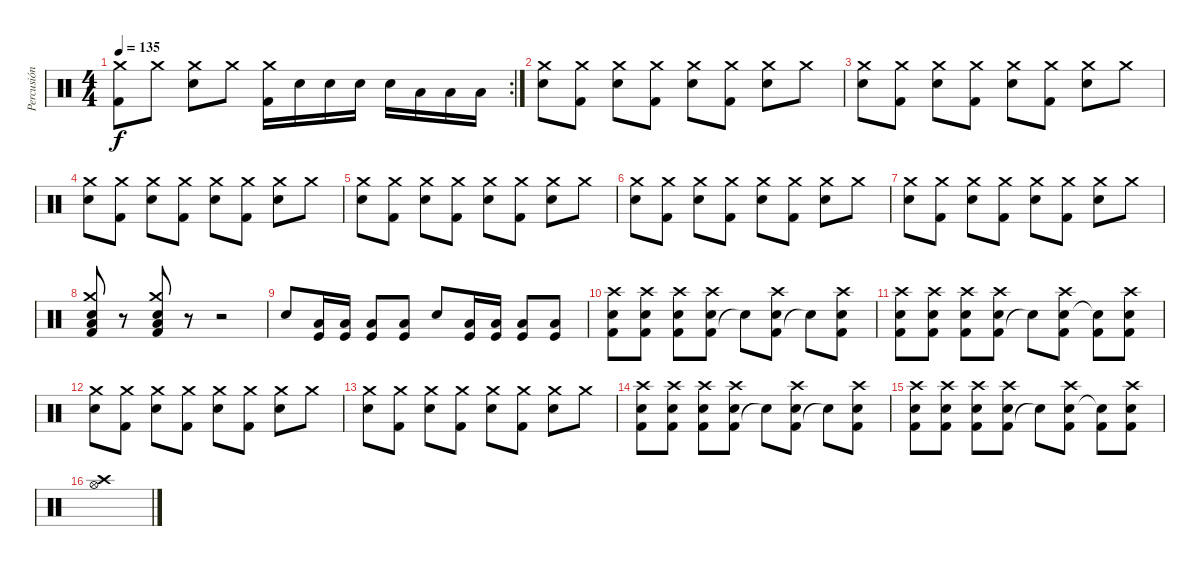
\track ("Percusión" "Percusión") {instrument percussion}
\staff {score}
\articulation defaults
\rc 2
\ts (4 4)
\tempo 135
\clef neutral
\ks c
("Kick (hit) 2" "Crash medium (hit)").8{dy f} "Crash medium (hit)".8 ("Snare (hit) 2" "Crash medium (hit)").8 "Crash medium (hit)".8 ("Kick (hit) 2" "Crash medium (hit)").16 "Snare (hit) 2".16 "Snare (hit) 2".16 "Snare (hit) 2".16 "Snare (hit) 2".16 "Low Tom (hit)".16 "Low Tom (hit)".16 "Low Tom (hit)".16 |
("Snare (hit) 2" "Crash medium (hit)").8 ("Kick (hit) 2" "Crash medium (hit)").8 ("Snare (hit) 2" "Crash medium (hit)").8 ("Kick (hit) 2" "Crash medium (hit)").8 ("Snare (hit) 2" "Crash medium (hit)").8 ("Kick (hit) 2" "Crash medium (hit)").8 ("Snare (hit) 2" "Crash medium (hit)").8 "Crash medium (hit)".8 |
("Snare (hit) 2" "Crash medium (hit)").8 ("Kick (hit) 2" "Crash medium (hit)").8 ("Snare (hit) 2" "Crash medium (hit)").8 ("Kick (hit) 2" "Crash medium (hit)").8 ("Snare (hit) 2" "Crash medium (hit)").8 ("Kick (hit) 2" "Crash medium (hit)").8 ("Snare (hit) 2" "Crash medium (hit)").8 "Crash medium (hit)".8 |
("Snare (hit) 2" "Crash medium (hit)").8 ("Kick (hit) 2" "Crash medium (hit)").8 ("Snare (hit) 2" "Crash medium (hit)").8 ("Kick (hit) 2" "Crash medium (hit)").8 ("Snare (hit) 2" "Crash medium (hit)").8 ("Kick (hit) 2" "Crash medium (hit)").8 ("Snare (hit) 2" "Crash medium (hit)").8 "Crash medium (hit)".8 |
("Snare (hit) 2" "Crash medium (hit)").8 ("Kick (hit) 2" "Crash medium (hit)").8 ("Snare (hit) 2" "Crash medium (hit)").8 ("Kick (hit) 2" "Crash medium (hit)").8 ("Snare (hit) 2" "Crash medium (hit)").8 ("Kick (hit) 2" "Crash medium (hit)").8 ("Snare (hit) 2" "Crash medium (hit)").8 "Crash medium (hit)".8 |
("Snare (hit) 2" "Crash medium (hit)").8 ("Kick (hit) 2" "Crash medium (hit)").8 ("Snare (hit) 2" "Crash medium (hit)").8 ("Kick (hit) 2" "Crash medium (hit)").8 ("Snare (hit) 2" "Crash medium (hit)").8 ("Kick (hit) 2" "Crash medium (hit)").8 ("Snare (hit) 2" "Crash medium (hit)").8 "Crash medium (hit)".8 |
("Snare (hit) 2" "Crash medium (hit)").8 ("Kick (hit) 2" "Crash medium (hit)").8 ("Snare (hit) 2" "Crash medium (hit)").8 ("Kick (hit) 2" "Crash medium (hit)").8 ("Snare (hit) 2" "Crash medium (hit)").8 ("Kick (hit) 2" "Crash medium (hit)").8 ("Snare (hit) 2" "Crash medium (hit)").8 "Crash medium (hit)".8 |
("Low Tom (hit)" "Kick (hit) 2" "Snare (hit) 2" "Crash medium (hit)").8 r.8 ("Low Tom (hit)" "Kick (hit) 2" "Snare (hit) 2" "Crash medium (hit)").8 r.8 r.2 |
"Snare (hit) 2".8 ("Kick (hit)" "Low Tom (hit)").16 ("Kick (hit)" "Low Tom (hit)").16 ("Kick (hit)" "Low Floor Tom (hit)").8 ("Kick (hit)" "Low Floor Tom (hit)").8 "Snare (hit) 2".8 ("Kick (hit)" "Low Tom (hit)").16 ("Kick (hit)" "Low Tom (hit)").16 ("Kick (hit)" "Low Floor Tom (hit)").8 ("Kick (hit)" "Low Floor Tom (hit)").8 |
("Kick (hit) 2" "Snare (hit) 2" "Crash high (hit)").8 ("Kick (hit) 2" "Snare (hit) 2" "Crash high (hit)").8 ("Kick (hit) 2" "Snare (hit) 2" "Crash high (hit)").8 ("Kick (hit) 2" "Snare (hit) 2" "Crash high (hit)").8 "Snare (hit)"{t}.8 ("Kick (hit) 2" "Snare (hit) 2" "Crash high (hit)").8 "Snare (hit)"{t}.8 ("Kick (hit) 2" "Snare (hit) 2" "Crash high (hit)").8 |
("Kick (hit) 2" "Snare (hit) 2" "Crash high (hit)").8 ("Kick (hit) 2" "Snare (hit) 2" "Crash high (hit)").8 ("Kick (hit) 2" "Snare (hit) 2" "Crash high (hit)").8 ("Kick (hit) 2" "Snare (hit) 2" "Crash high (hit)").8 "Snare (hit)"{t}.8 ("Kick (hit) 2" "Snare (hit) 2" "Crash high (hit)").8 ("Kick (hit) 2" "Snare (hit)"{t}).8 ("Kick (hit) 2" "Snare (hit) 2" "Crash high (hit)").8 |
("Snare (hit) 2" "Crash medium (hit)").8 ("Kick (hit) 2" "Crash medium (hit)").8 ("Snare (hit) 2" "Crash medium (hit)").8 ("Kick (hit) 2" "Crash medium (hit)").8 ("Snare (hit) 2" "Crash medium (hit)").8 ("Kick (hit) 2" "Crash medium (hit)").8 ("Snare (hit) 2" "Crash medium (hit)").8 "Crash medium (hit)".8 |
("Snare (hit) 2" "Crash medium (hit)").8 ("Kick (hit) 2" "Crash medium (hit)").8 ("Snare (hit) 2" "Crash medium (hit)").8 ("Kick (hit) 2" "Crash medium (hit)").8 ("Snare (hit) 2" "Crash medium (hit)").8 ("Kick (hit) 2" "Crash medium (hit)").8 ("Snare (hit) 2" "Crash medium (hit)").8 "Crash medium (hit)".8 |
("Kick (hit) 2" "Snare (hit) 2" "Crash high (hit)").8 ("Kick (hit) 2" "Snare (hit) 2" "Crash high (hit)").8 ("Kick (hit) 2" "Snare (hit) 2" "Crash high (hit)").8 ("Kick (hit) 2" "Snare (hit) 2" "Crash high (hit)").8 "Snare (hit)"{t}.8 ("Kick (hit) 2" "Snare (hit) 2" "Crash high (hit)").8 "Snare (hit)"{t}.8 ("Kick (hit) 2" "Snare (hit) 2" "Crash high (hit)").8 |
("Kick (hit) 2" "Snare (hit) 2" "Crash high (hit)").8 ("Kick (hit) 2" "Snare (hit) 2" "Crash high (hit)").8 ("Kick (hit) 2" "Snare (hit) 2" "Crash high (hit)").8 ("Kick (hit) 2" "Snare (hit) 2" "Crash high (hit)").8 "Snare (hit)"{t}.8 ("Kick (hit) 2" "Snare (hit) 2" "Crash high (hit)").8 ("Kick (hit) 2" "Snare (hit)"{t}).8 ("Kick (hit) 2" "Snare (hit) 2" "Crash high (hit)").8 |
("Hi-Hat (open)" "Crash high (hit)").1
